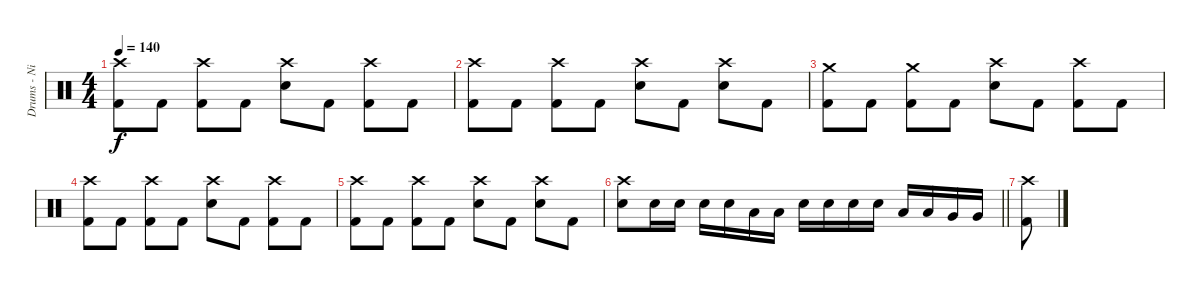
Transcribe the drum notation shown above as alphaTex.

\track ("Drums - Nick" "Drums - Ni") {instrument percussion}
\staff {score}
\articulation defaults
\ts (4 4)
\tempo 140
\clef neutral
\ks c
("Crash high (hit)" "Kick (hit) 2").8{dy f} "Kick (hit) 2".8 ("Crash high (hit)" "Kick (hit) 2").8 "Kick (hit) 2".8 ("Crash high (hit)" "Snare (hit) 2").8 "Kick (hit) 2".8 ("Crash high (hit)" "Kick (hit) 2").8 "Kick (hit) 2".8 |
("Crash high (hit)" "Kick (hit) 2").8 "Kick (hit) 2".8 ("Crash high (hit)" "Kick (hit) 2").8 "Kick (hit) 2".8 ("Crash high (hit)" "Snare (hit) 2").8 "Kick (hit) 2".8 ("Crash high (hit)" "Snare (hit) 2").8 "Kick (hit) 2".8 |
("Crash medium (hit)" "Kick (hit) 2").8 "Kick (hit) 2".8 ("Crash medium (hit)" "Kick (hit) 2").8 "Kick (hit) 2".8 ("Crash high (hit)" "Snare (hit) 2").8 "Kick (hit) 2".8 ("Crash high (hit)" "Kick (hit) 2").8 "Kick (hit) 2".8 |
("Crash high (hit)" "Kick (hit) 2").8 "Kick (hit) 2".8 ("Crash high (hit)" "Kick (hit) 2").8 "Kick (hit) 2".8 ("Crash high (hit)" "Snare (hit) 2").8 "Kick (hit) 2".8 ("Crash high (hit)" "Kick (hit) 2").8 "Kick (hit) 2".8 |
("Crash high (hit)" "Kick (hit) 2").8 "Kick (hit) 2".8 ("Crash high (hit)" "Kick (hit) 2").8 "Kick (hit) 2".8 ("Crash high (hit)" "Snare (hit) 2").8 "Kick (hit) 2".8 ("Crash high (hit)" "Snare (hit) 2").8 "Kick (hit) 2".8 |
\barLineRight lightlight
("Crash high (hit)" "Snare (hit) 2").8 "Snare (hit) 2".16 "Snare (hit) 2".16 "Snare (hit) 2".16 "Snare (hit) 2".16 "Low Tom (hit)".16 "Low Tom (hit)".16 "Snare (hit) 2".16 "Snare (hit) 2".16 "Snare (hit) 2".16 "Snare (hit) 2".16 "Low Tom (hit)".16 "Low Tom (hit)".16 "Very Low Tom (hit)".16 "Very Low Tom (hit)".16 |
("Crash high (hit)" "Kick (hit) 2").8
